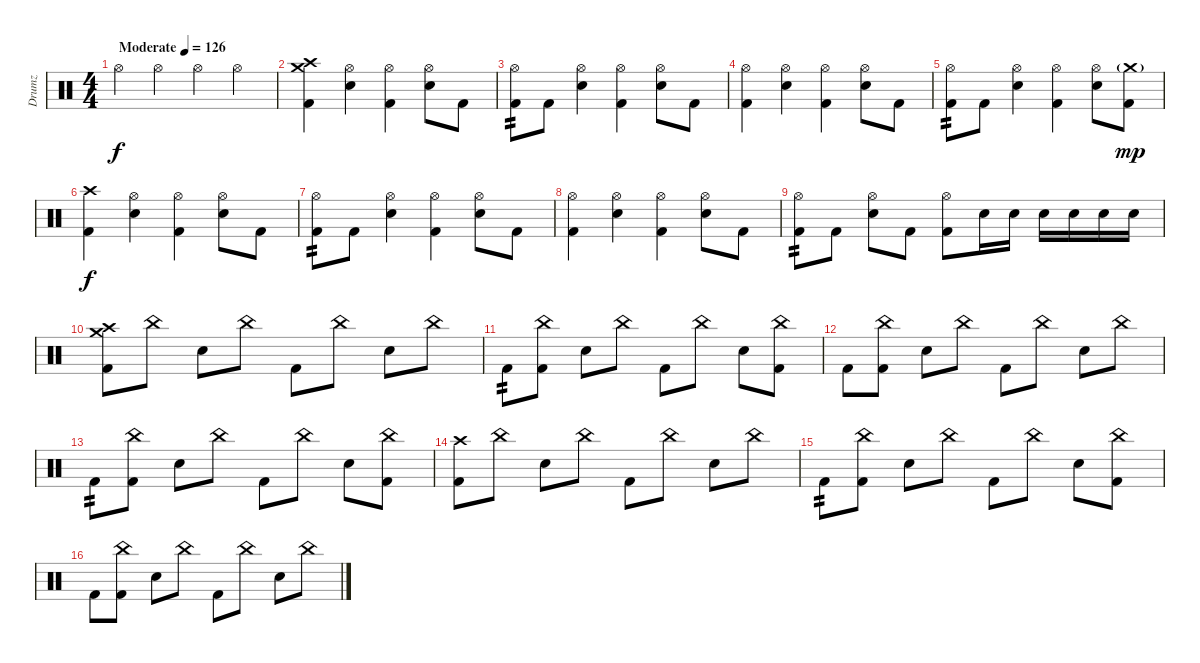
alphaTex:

\track ("Drumz" "Drumz") {instrument percussion}
\staff {score}
\articulation defaults
\ts (4 4)
\tempo (126 "Moderate")
\clef neutral
\ks c "Hi-Hat (open)".4{dy f} "Hi-Hat (open)".4 "Hi-Hat (open)".4 "Hi-Hat (open)".4
|
("Crash medium (hit)" "Crash high (hit)" "Kick (hit) 2").4 ("Hi-Hat (open)" "Snare (hit) 2").4 ("Hi-Hat (open)" "Kick (hit) 2").4 ("Hi-Hat (open)" "Snare (hit) 2").8 "Kick (hit) 2".8 |
("Hi-Hat (open)" "Kick (hit) 2").8{tp 2} "Kick (hit) 2".8 ("Hi-Hat (open)" "Snare (hit) 2").4 ("Hi-Hat (open)" "Kick (hit) 2").4 ("Hi-Hat (open)" "Snare (hit) 2").8 "Kick (hit) 2".8 |
("Hi-Hat (open)" "Kick (hit) 2").4 ("Hi-Hat (open)" "Snare (hit) 2").4 ("Hi-Hat (open)" "Kick (hit) 2").4 ("Hi-Hat (open)" "Snare (hit) 2").8 "Kick (hit) 2".8 |
("Hi-Hat (open)" "Kick (hit) 2").8{tp 2} "Kick (hit) 2".8 ("Hi-Hat (open)" "Snare (hit) 2").4 ("Hi-Hat (open)" "Kick (hit) 2").4 ("Hi-Hat (open)" "Snare (hit) 2").8 ("Crash medium (hit)"{g} "Kick (hit) 2").8{dy mp} |
("Crash high (hit)" "Kick (hit) 2").4{dy f} ("Hi-Hat (open)" "Snare (hit) 2").4 ("Hi-Hat (open)" "Kick (hit) 2").4 ("Hi-Hat (open)" "Snare (hit) 2").8 "Kick (hit) 2".8 |
("Hi-Hat (open)" "Kick (hit) 2").8{tp 2} "Kick (hit) 2".8 ("Hi-Hat (open)" "Snare (hit) 2").4 ("Hi-Hat (open)" "Kick (hit) 2").4 ("Hi-Hat (open)" "Snare (hit) 2").8 "Kick (hit) 2".8 |
("Hi-Hat (open)" "Kick (hit) 2").4 ("Hi-Hat (open)" "Snare (hit) 2").4 ("Hi-Hat (open)" "Kick (hit) 2").4 ("Hi-Hat (open)" "Snare (hit) 2").8 "Kick (hit) 2".8 |
("Hi-Hat (open)" "Kick (hit) 2").8{tp 2} "Kick (hit) 2".8 ("Hi-Hat (open)" "Snare (hit) 2").8 "Kick (hit) 2".8 ("Hi-Hat (open)" "Kick (hit) 2").8 "Snare (hit) 2".16 "Snare (hit) 2".16 "Snare (hit) 2".16 "Snare (hit) 2".16 "Snare (hit) 2".16 "Snare (hit) 2".16 |
("Crash medium (hit)" "Crash high (hit)" "Kick (hit) 2").8 "China (hit)".8 "Snare (hit) 2".8 "China (hit)".8 "Kick (hit) 2".8 "China (hit)".8 "Snare (hit) 2".8 "China (hit)".8 |
"Kick (hit) 2".8{tp 2} ("China (hit)" "Kick (hit) 2").8 "Snare (hit) 2".8 "China (hit)".8 "Kick (hit) 2".8 "China (hit)".8 "Snare (hit) 2".8 ("China (hit)" "Kick (hit) 2").8 |
"Kick (hit) 2".8 ("China (hit)" "Kick (hit) 2").8 "Snare (hit) 2".8 "China (hit)".8 "Kick (hit) 2".8 "China (hit)".8 "Snare (hit) 2".8 "China (hit)".8 |
"Kick (hit) 2".8{tp 2} ("China (hit)" "Kick (hit) 2").8 "Snare (hit) 2".8 "China (hit)".8 "Kick (hit) 2".8 "China (hit)".8 "Snare (hit) 2".8 ("China (hit)" "Kick (hit) 2").8 |
("Crash high (hit)" "Kick (hit) 2").8 "China (hit)".8 "Snare (hit) 2".8 "China (hit)".8 "Kick (hit) 2".8 "China (hit)".8 "Snare (hit) 2".8 "China (hit)".8 |
"Kick (hit) 2".8{tp 2} ("China (hit)" "Kick (hit) 2").8 "Snare (hit) 2".8 "China (hit)".8 "Kick (hit) 2".8 "China (hit)".8 "Snare (hit) 2".8 ("China (hit)" "Kick (hit) 2").8 |
"Kick (hit) 2".8 ("China (hit)" "Kick (hit) 2").8 "Snare (hit) 2".8 "China (hit)".8 "Kick (hit) 2".8 "China (hit)".8 "Snare (hit) 2".8 "China (hit)".8
